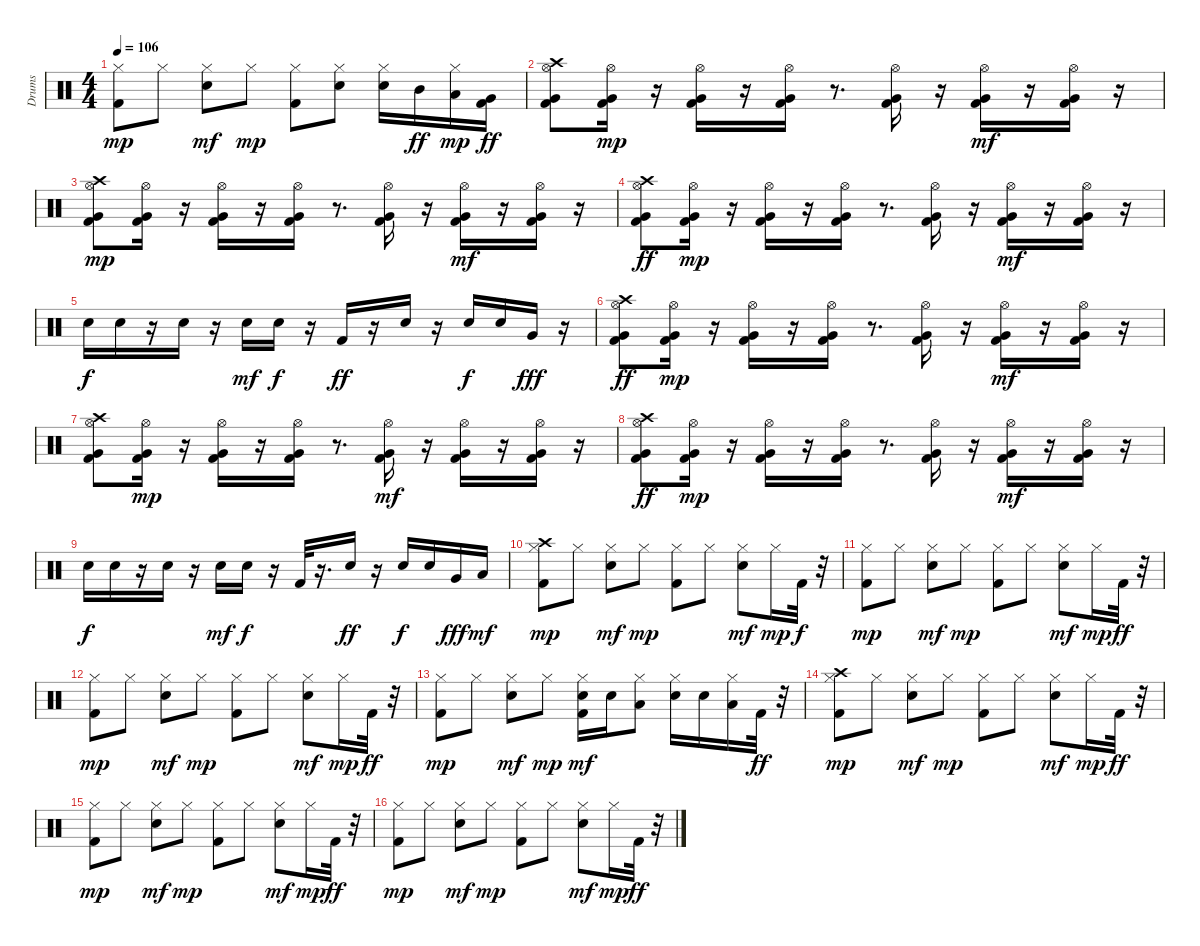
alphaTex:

\track ("Drums" "Drums") {instrument percussion}
\staff {score}
\articulation defaults
\ts (4 4)
\tempo 106
\clef neutral
\ks c
("Kick (hit) 2" "Hi-Hat (closed)").8{dy mp} "Hi-Hat (closed)".8 ("Hi-Hat (closed)" "Snare (hit) 2").8{dy mf} "Hi-Hat (closed)".8{dy mp} ("Hi-Hat (closed)" "Kick (hit) 2").8 ("Hi-Hat (closed)" "Snare (hit) 2").8 ("Hi-Hat (closed)" "Snare (hit) 2").16 "Mid Tom (hit)".16{dy ff} ("Hi-Hat (closed)" "Low Tom (hit)").16{dy mp} ("Very Low Tom (hit)" "Kick (hit) 2").16{dy ff} |
("Crash high (hit)" "Very Low Tom (hit)" "Hi-Hat (open)" "Kick (hit) 2").8 ("Very Low Tom (hit)" "Hi-Hat (open)" "Kick (hit) 2").16{dy mp} r.16 ("Very Low Tom (hit)" "Kick (hit) 2" "Hi-Hat (open)").16 r.16 ("Very Low Tom (hit)" "Kick (hit) 2" "Hi-Hat (open)").16 r.8{d} ("Kick (hit) 2" "Very Low Tom (hit)" "Hi-Hat (open)").16 r.16 ("Very Low Tom (hit)" "Kick (hit) 2" "Hi-Hat (open)").16{dy mf} r.16 ("Very Low Tom (hit)" "Hi-Hat (open)" "Kick (hit) 2").16 r.16 |
("Crash high (hit)" "Very Low Tom (hit)" "Kick (hit) 2" "Hi-Hat (open)").8{dy mp} ("Very Low Tom (hit)" "Kick (hit) 2" "Hi-Hat (open)").16 r.16 ("Very Low Tom (hit)" "Kick (hit) 2" "Hi-Hat (open)").16 r.16 ("Very Low Tom (hit)" "Kick (hit) 2" "Hi-Hat (open)").16 r.8{d} ("Kick (hit) 2" "Very Low Tom (hit)" "Hi-Hat (open)").16 r.16 ("Very Low Tom (hit)" "Kick (hit) 2" "Hi-Hat (open)").16{dy mf} r.16 ("Very Low Tom (hit)" "Hi-Hat (open)" "Kick (hit) 2").16 r.16 |
("Crash high (hit)" "Very Low Tom (hit)" "Hi-Hat (open)" "Kick (hit) 2").8{dy ff} ("Very Low Tom (hit)" "Hi-Hat (open)" "Kick (hit) 2").16{dy mp} r.16 ("Very Low Tom (hit)" "Kick (hit) 2" "Hi-Hat (open)").16 r.16 ("Very Low Tom (hit)" "Kick (hit) 2" "Hi-Hat (open)").16 r.8{d} ("Kick (hit) 2" "Very Low Tom (hit)" "Hi-Hat (open)").16 r.16 ("Very Low Tom (hit)" "Kick (hit) 2" "Hi-Hat (open)").16{dy mf} r.16 ("Very Low Tom (hit)" "Hi-Hat (open)" "Kick (hit) 2").16 r.16 |
"Snare (hit) 2".16{dy f} "Snare (hit) 2".16 r.16 "Snare (hit) 2".16 r.16 "Snare (hit) 2".16{dy mf} "Snare (hit) 2".16{dy f} r.16 "Kick (hit) 2".16{dy ff} r.16 "Snare (hit) 2".16 r.16 "Snare (hit) 2".16{dy f} "Snare (hit) 2".16 "Very Low Tom (hit)".16{dy fff} r.16 |
("Crash high (hit)" "Very Low Tom (hit)" "Hi-Hat (open)" "Kick (hit) 2").8{dy ff} ("Very Low Tom (hit)" "Hi-Hat (open)" "Kick (hit) 2").16{dy mp} r.16 ("Very Low Tom (hit)" "Kick (hit) 2" "Hi-Hat (open)").16 r.16 ("Very Low Tom (hit)" "Kick (hit) 2" "Hi-Hat (open)").16 r.8{d} ("Kick (hit) 2" "Very Low Tom (hit)" "Hi-Hat (open)").16 r.16 ("Very Low Tom (hit)" "Kick (hit) 2" "Hi-Hat (open)").16{dy mf} r.16 ("Very Low Tom (hit)" "Hi-Hat (open)" "Kick (hit) 2").16 r.16 |
("Crash high (hit)" "Hi-Hat (open)" "Kick (hit) 2" "Very Low Tom (hit)").8 ("Very Low Tom (hit)" "Hi-Hat (open)" "Kick (hit) 2").16{dy mp} r.16 ("Kick (hit) 2" "Very Low Tom (hit)" "Hi-Hat (open)").16 r.16 ("Kick (hit) 2" "Very Low Tom (hit)" "Hi-Hat (open)").16 r.8{d} ("Kick (hit) 2" "Hi-Hat (open)" "Very Low Tom (hit)").16{dy mf} r.16 ("Very Low Tom (hit)" "Kick (hit) 2" "Hi-Hat (open)").16 r.16 ("Hi-Hat (open)" "Very Low Tom (hit)" "Kick (hit) 2").16 r.16 |
("Crash high (hit)" "Very Low Tom (hit)" "Hi-Hat (open)" "Kick (hit) 2").8{dy ff} ("Very Low Tom (hit)" "Hi-Hat (open)" "Kick (hit) 2").16{dy mp} r.16 ("Very Low Tom (hit)" "Kick (hit) 2" "Hi-Hat (open)").16 r.16 ("Very Low Tom (hit)" "Kick (hit) 2" "Hi-Hat (open)").16 r.8{d} ("Kick (hit) 2" "Very Low Tom (hit)" "Hi-Hat (open)").16 r.16 ("Very Low Tom (hit)" "Kick (hit) 2" "Hi-Hat (open)").16{dy mf} r.16 ("Very Low Tom (hit)" "Hi-Hat (open)" "Kick (hit) 2").16 r.16 |
"Snare (hit) 2".16{dy f} "Snare (hit) 2".16 r.16 "Snare (hit) 2".16 r.16 "Snare (hit) 2".16{dy mf} "Snare (hit) 2".16{dy f} r.16 "Kick (hit) 2".32 r.16{d} "Snare (hit) 2".16{dy ff} r.16 "Snare (hit) 2".16{dy f} "Snare (hit) 2".16 "Very Low Tom (hit)".16{dy fff} "Low Floor Tom (hit)".16{dy mf} |
("Crash high (hit)" "Kick (hit) 2" "Hi-Hat (closed)").8{dy mp} "Hi-Hat (closed)".8 ("Hi-Hat (closed)" "Snare (hit) 2").8{dy mf} "Hi-Hat (closed)".8{dy mp} ("Hi-Hat (closed)" "Kick (hit) 2").8 "Hi-Hat (closed)".8 ("Hi-Hat (closed)" "Snare (hit) 2").8{dy mf} "Hi-Hat (closed)".16{dy mp} "Kick (hit) 2".32{dy f} r.32 |
("Kick (hit) 2" "Hi-Hat (closed)").8{dy mp} "Hi-Hat (closed)".8 ("Hi-Hat (closed)" "Snare (hit) 2").8{dy mf} "Hi-Hat (closed)".8{dy mp} ("Hi-Hat (closed)" "Kick (hit) 2").8 "Hi-Hat (closed)".8 ("Hi-Hat (closed)" "Snare (hit) 2").8{dy mf} "Hi-Hat (closed)".16{dy mp} "Kick (hit) 2".32{dy ff} r.32 |
("Kick (hit) 2" "Hi-Hat (closed)").8{dy mp} "Hi-Hat (closed)".8 ("Hi-Hat (closed)" "Snare (hit) 2").8{dy mf} "Hi-Hat (closed)".8{dy mp} ("Hi-Hat (closed)" "Kick (hit) 2").8 "Hi-Hat (closed)".8 ("Hi-Hat (closed)" "Snare (hit) 2").8{dy mf} "Hi-Hat (closed)".16{dy mp} "Kick (hit) 2".32{dy ff} r.32 |
("Kick (hit) 2" "Hi-Hat (closed)").8{dy mp} "Hi-Hat (closed)".8 ("Hi-Hat (closed)" "Snare (hit) 2").8{dy mf} "Hi-Hat (closed)".8{dy mp} ("Hi-Hat (closed)" "Kick (hit) 2" "Snare (hit) 2").16{dy mf} "Snare (hit) 2".16 ("Hi-Hat (closed)" "Low Tom (hit)").8 ("Hi-Hat (closed)" "Snare (hit) 2").16 "Snare (hit) 2".16 ("Hi-Hat (closed)" "Low Tom (hit)").16 "Kick (hit) 2".32{dy ff} r.32 |
("Crash high (hit)" "Kick (hit) 2" "Hi-Hat (closed)").8{dy mp} "Hi-Hat (closed)".8 ("Hi-Hat (closed)" "Snare (hit) 2").8{dy mf} "Hi-Hat (closed)".8{dy mp} ("Hi-Hat (closed)" "Kick (hit) 2").8 "Hi-Hat (closed)".8 ("Hi-Hat (closed)" "Snare (hit) 2").8{dy mf} "Hi-Hat (closed)".16{dy mp} "Kick (hit) 2".32{dy ff} r.32 |
("Kick (hit) 2" "Hi-Hat (closed)").8{dy mp} "Hi-Hat (closed)".8 ("Hi-Hat (closed)" "Snare (hit) 2").8{dy mf} "Hi-Hat (closed)".8{dy mp} ("Hi-Hat (closed)" "Kick (hit) 2").8 "Hi-Hat (closed)".8 ("Hi-Hat (closed)" "Snare (hit) 2").8{dy mf} "Hi-Hat (closed)".16{dy mp} "Kick (hit) 2".32{dy ff} r.32 |
("Kick (hit) 2" "Hi-Hat (closed)").8{dy mp} "Hi-Hat (closed)".8 ("Hi-Hat (closed)" "Snare (hit) 2").8{dy mf} "Hi-Hat (closed)".8{dy mp} ("Hi-Hat (closed)" "Kick (hit) 2").8 "Hi-Hat (closed)".8 ("Hi-Hat (closed)" "Snare (hit) 2").8{dy mf} "Hi-Hat (closed)".16{dy mp} "Kick (hit) 2".32{dy ff} r.32
